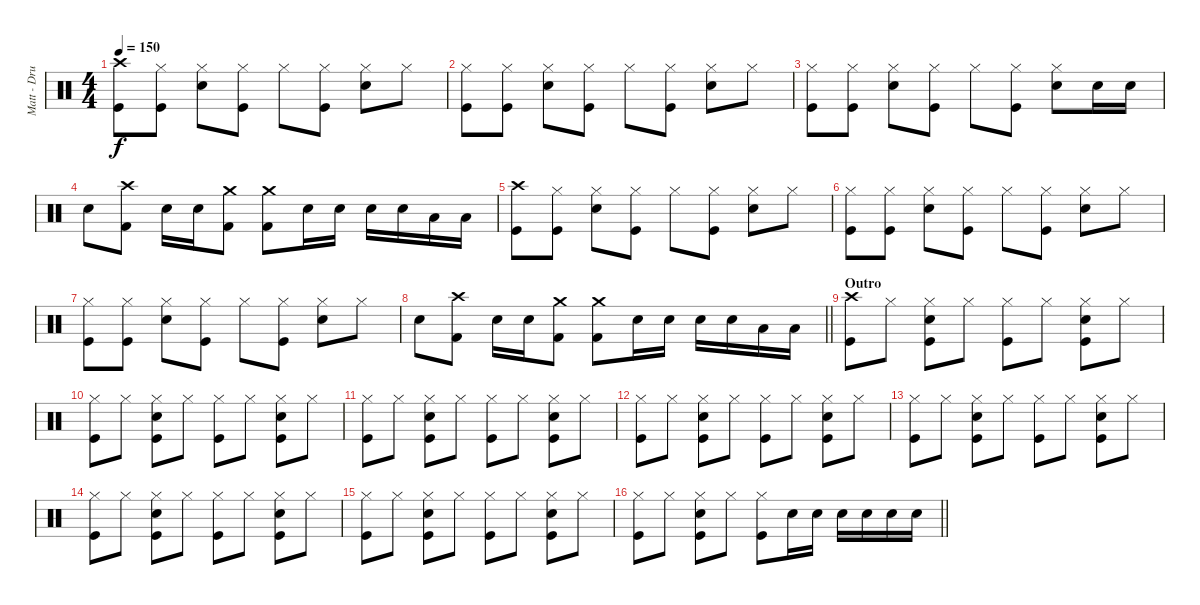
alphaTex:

\track ("Matt - Drums" "Matt - Dru") {instrument percussion}
\staff {score}
\articulation defaults
\ts (4 4)
\tempo 150
\clef neutral
\ks c
("Crash high (hit)" "Kick (hit)").8{dy f} ("Hi-Hat (closed)" "Kick (hit)").8 ("Hi-Hat (closed)" "Electric Snare (hit)").8 ("Hi-Hat (closed)" "Kick (hit)").8 "Hi-Hat (closed)".8 ("Hi-Hat (closed)" "Kick (hit)").8 ("Hi-Hat (closed)" "Electric Snare (hit)").8 "Hi-Hat (closed)".8 |
("Hi-Hat (closed)" "Kick (hit)").8 ("Hi-Hat (closed)" "Kick (hit)").8 ("Hi-Hat (closed)" "Electric Snare (hit)").8 ("Hi-Hat (closed)" "Kick (hit)").8 "Hi-Hat (closed)".8 ("Hi-Hat (closed)" "Kick (hit)").8 ("Hi-Hat (closed)" "Electric Snare (hit)").8 "Hi-Hat (closed)".8 |
("Hi-Hat (closed)" "Kick (hit)").8 ("Hi-Hat (closed)" "Kick (hit)").8 ("Hi-Hat (closed)" "Electric Snare (hit)").8 ("Hi-Hat (closed)" "Kick (hit)").8 "Hi-Hat (closed)".8 ("Hi-Hat (closed)" "Kick (hit)").8 ("Hi-Hat (closed)" "Electric Snare (hit)").8 "Electric Snare (hit)".16 "Electric Snare (hit)".16 |
"Electric Snare (hit)".8 ("Crash high (hit)" "Kick (hit) 2").8 "Electric Snare (hit)".16 "Electric Snare (hit)".16 ("Crash medium (hit)" "Kick (hit) 2").8 ("Crash medium (hit)" "Kick (hit) 2").8 "Electric Snare (hit)".16 "Electric Snare (hit)".16 "Electric Snare (hit)".16 "Electric Snare (hit)".16 "Low Tom (hit)".16 "Low Tom (hit)".16 |
("Crash high (hit)" "Kick (hit)").8 ("Hi-Hat (closed)" "Kick (hit)").8 ("Hi-Hat (closed)" "Electric Snare (hit)").8 ("Hi-Hat (closed)" "Kick (hit)").8 "Hi-Hat (closed)".8 ("Hi-Hat (closed)" "Kick (hit)").8 ("Hi-Hat (closed)" "Electric Snare (hit)").8 "Hi-Hat (closed)".8 |
("Hi-Hat (closed)" "Kick (hit)").8 ("Hi-Hat (closed)" "Kick (hit)").8 ("Hi-Hat (closed)" "Electric Snare (hit)").8 ("Hi-Hat (closed)" "Kick (hit)").8 "Hi-Hat (closed)".8 ("Hi-Hat (closed)" "Kick (hit)").8 ("Hi-Hat (closed)" "Electric Snare (hit)").8 "Hi-Hat (closed)".8 |
("Hi-Hat (closed)" "Kick (hit)").8 ("Hi-Hat (closed)" "Kick (hit)").8 ("Hi-Hat (closed)" "Electric Snare (hit)").8 ("Hi-Hat (closed)" "Kick (hit)").8 "Hi-Hat (closed)".8 ("Hi-Hat (closed)" "Kick (hit)").8 ("Hi-Hat (closed)" "Electric Snare (hit)").8 "Hi-Hat (closed)".8 |
\barLineRight lightlight "Electric Snare (hit)".8
("Crash high (hit)" "Kick (hit) 2").8 "Electric Snare (hit)".16 "Electric Snare (hit)".16 ("Crash medium (hit)" "Kick (hit) 2").8 ("Crash medium (hit)" "Kick (hit) 2").8 "Electric Snare (hit)".16 "Electric Snare (hit)".16 "Electric Snare (hit)".16 "Electric Snare (hit)".16 "Low Tom (hit)".16 "Low Tom (hit)".16 |
\section ("" "Outro")
("Crash high (hit)" "Kick (hit)").8 "Hi-Hat (closed)".8 ("Hi-Hat (closed)" "Electric Snare (hit)" "Kick (hit)").8 "Hi-Hat (closed)".8 ("Hi-Hat (closed)" "Kick (hit)").8 "Hi-Hat (closed)".8 ("Hi-Hat (closed)" "Electric Snare (hit)" "Kick (hit)").8 "Hi-Hat (closed)".8 |
("Hi-Hat (closed)" "Kick (hit)").8 "Hi-Hat (closed)".8 ("Hi-Hat (closed)" "Electric Snare (hit)" "Kick (hit)").8 "Hi-Hat (closed)".8 ("Hi-Hat (closed)" "Kick (hit)").8 "Hi-Hat (closed)".8 ("Hi-Hat (closed)" "Electric Snare (hit)" "Kick (hit)").8 "Hi-Hat (closed)".8 |
("Hi-Hat (closed)" "Kick (hit)").8 "Hi-Hat (closed)".8 ("Hi-Hat (closed)" "Electric Snare (hit)" "Kick (hit)").8 "Hi-Hat (closed)".8 ("Hi-Hat (closed)" "Kick (hit)").8 "Hi-Hat (closed)".8 ("Hi-Hat (closed)" "Electric Snare (hit)" "Kick (hit)").8 "Hi-Hat (closed)".8 |
("Hi-Hat (closed)" "Kick (hit)").8 "Hi-Hat (closed)".8 ("Hi-Hat (closed)" "Electric Snare (hit)" "Kick (hit)").8 "Hi-Hat (closed)".8 ("Hi-Hat (closed)" "Kick (hit)").8 "Hi-Hat (closed)".8 ("Hi-Hat (closed)" "Electric Snare (hit)" "Kick (hit)").8 "Hi-Hat (closed)".8 |
("Hi-Hat (closed)" "Kick (hit)").8 "Hi-Hat (closed)".8 ("Hi-Hat (closed)" "Electric Snare (hit)" "Kick (hit)").8 "Hi-Hat (closed)".8 ("Hi-Hat (closed)" "Kick (hit)").8 "Hi-Hat (closed)".8 ("Hi-Hat (closed)" "Electric Snare (hit)" "Kick (hit)").8 "Hi-Hat (closed)".8 |
("Hi-Hat (closed)" "Kick (hit)").8 "Hi-Hat (closed)".8 ("Hi-Hat (closed)" "Electric Snare (hit)" "Kick (hit)").8 "Hi-Hat (closed)".8 ("Hi-Hat (closed)" "Kick (hit)").8 "Hi-Hat (closed)".8 ("Hi-Hat (closed)" "Electric Snare (hit)" "Kick (hit)").8 "Hi-Hat (closed)".8 |
("Hi-Hat (closed)" "Kick (hit)").8 "Hi-Hat (closed)".8 ("Hi-Hat (closed)" "Electric Snare (hit)" "Kick (hit)").8 "Hi-Hat (closed)".8 ("Hi-Hat (closed)" "Kick (hit)").8 "Hi-Hat (closed)".8 ("Hi-Hat (closed)" "Electric Snare (hit)" "Kick (hit)").8 "Hi-Hat (closed)".8 |
\barLineRight lightlight
("Hi-Hat (closed)" "Kick (hit)").8 "Hi-Hat (closed)".8 ("Hi-Hat (closed)" "Electric Snare (hit)" "Kick (hit)").8 "Hi-Hat (closed)".8 ("Hi-Hat (closed)" "Kick (hit)").8 "Electric Snare (hit)".16 "Electric Snare (hit)".16 "Electric Snare (hit)".16 "Electric Snare (hit)".16 "Electric Snare (hit)".16 "Electric Snare (hit)".16
